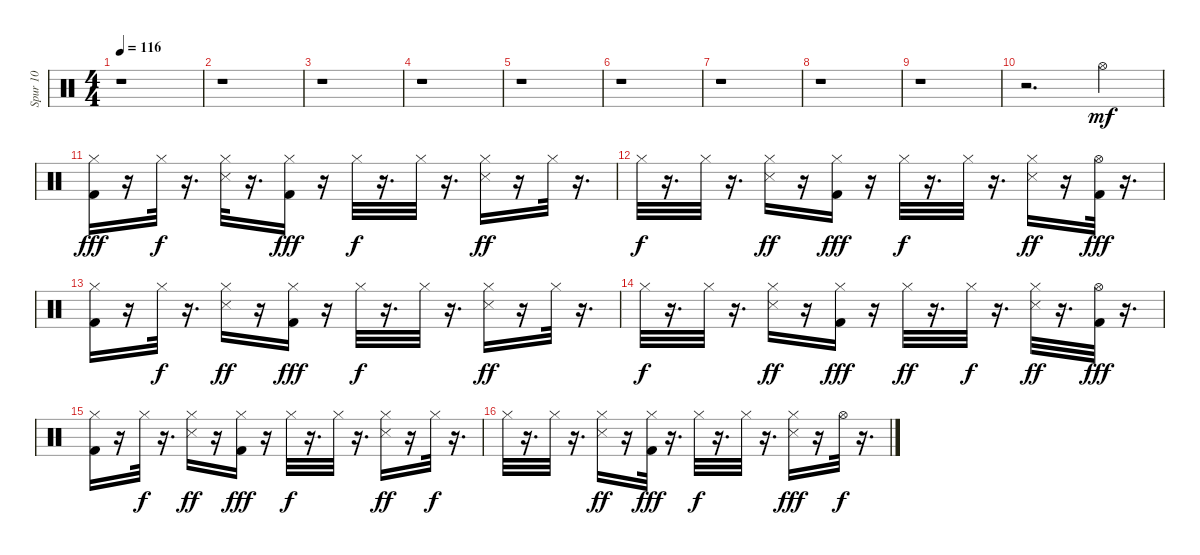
\track ("Spur 10" "Spur 10") {instrument percussion}
\staff {score}
\articulation defaults
\ts (4 4)
\tempo 116
\clef neutral
\ks c
r.1{dy mf} |
r.1 |
r.1 |
r.1 |
r.1 |
r.1 |
r.1 |
r.1 |
r.1 |
r.2{d} "Hi-Hat (open)".4 |
("Hi-Hat (closed)" "Kick (hit) 2").16{dy fff} r.16 "Hi-Hat (closed)".32{dy f} r.16{d} ("Hi-Hat (closed)" "Snare (side stick) 3").32 r.16{d} ("Hi-Hat (closed)" "Kick (hit) 2").16{dy fff} r.16 "Hi-Hat (closed)".32{dy f} r.16{d} "Hi-Hat (closed)".32 r.16{d} ("Hi-Hat (closed)" "Snare (side stick) 3").16{dy ff} r.16 "Hi-Hat (closed)".32 r.16{d} |
"Hi-Hat (closed)".32{dy f} r.16{d} "Hi-Hat (closed)".32 r.16{d} ("Hi-Hat (closed)" "Snare (side stick) 3").16{dy ff} r.16 ("Hi-Hat (closed)" "Kick (hit) 2").16{dy fff} r.16 "Hi-Hat (closed)".32{dy f} r.16{d} "Hi-Hat (closed)".32 r.16{d} ("Hi-Hat (closed)" "Snare (side stick) 3").16{dy ff} r.16 ("Hi-Hat (open)" "Kick (hit) 2").32{dy fff} r.16{d} |
("Hi-Hat (closed)" "Kick (hit) 2").16 r.16 "Hi-Hat (closed)".32{dy f} r.16{d} ("Hi-Hat (closed)" "Snare (side stick) 3").16{dy ff} r.16 ("Hi-Hat (closed)" "Kick (hit) 2").16{dy fff} r.16 "Hi-Hat (closed)".32{dy f} r.16{d} "Hi-Hat (closed)".32 r.16{d} ("Hi-Hat (closed)" "Snare (side stick) 3").16{dy ff} r.16 "Hi-Hat (closed)".32 r.16{d} |
"Hi-Hat (closed)".32{dy f} r.16{d} "Hi-Hat (closed)".32 r.16{d} ("Hi-Hat (closed)" "Snare (side stick) 3").16{dy ff} r.16 ("Hi-Hat (closed)" "Kick (hit) 2").16{dy fff} r.16 "Hi-Hat (closed)".32{dy ff} r.16{d} "Hi-Hat (closed)".32{dy f} r.16{d} ("Hi-Hat (closed)" "Snare (side stick) 3").32{dy ff} r.16{d} ("Hi-Hat (open)" "Kick (hit) 2").32{dy fff} r.16{d} |
("Hi-Hat (closed)" "Kick (hit) 2").16 r.16 "Hi-Hat (closed)".32{dy f} r.16{d} ("Hi-Hat (closed)" "Snare (side stick) 3").16{dy ff} r.16 ("Hi-Hat (closed)" "Kick (hit) 2").16{dy fff} r.16 "Hi-Hat (closed)".32{dy f} r.16{d} "Hi-Hat (closed)".32 r.16{d} ("Hi-Hat (closed)" "Snare (side stick) 3").16{dy ff} r.16 "Hi-Hat (closed)".32{dy f} r.16{d} |
"Hi-Hat (closed)".32 r.16{d} "Hi-Hat (closed)".32 r.16{d} ("Hi-Hat (closed)" "Snare (side stick) 3").16{dy ff} r.16 ("Hi-Hat (closed)" "Kick (hit) 2").32{dy fff} r.16{d} "Hi-Hat (closed)".32{dy f} r.16{d} "Hi-Hat (closed)".32 r.16{d} ("Hi-Hat (closed)" "Snare (side stick) 3").16{dy fff} r.16 "Hi-Hat (open)".32{dy f} r.16{d}
